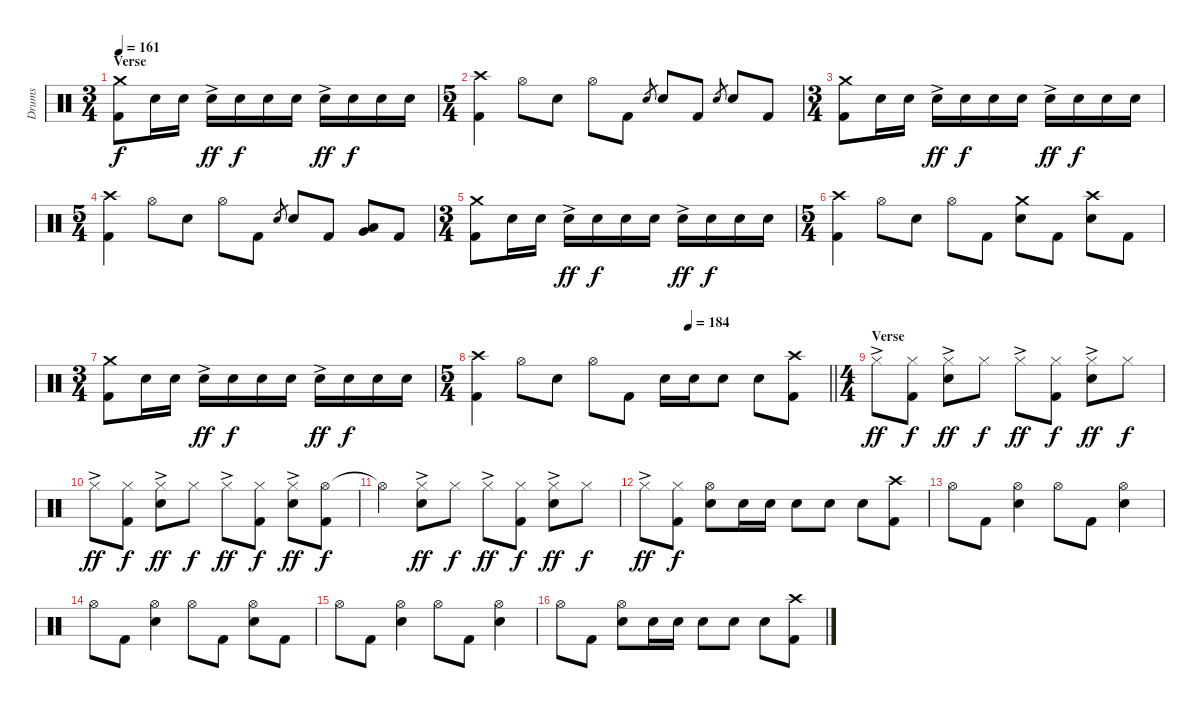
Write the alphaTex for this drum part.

\track ("Drums" "Drums") {instrument percussion}
\staff {score}
\articulation defaults
\ts (3 4)
\section ("" "Verse")
\tempo 161
\clef neutral
\ks c
("Crash medium (hit)" "Kick (hit) 2").8{dy f} "Electric Snare (hit)".16 "Electric Snare (hit)".16 "Electric Snare (hit)"{ac}.16{dy ff} "Electric Snare (hit)".16{dy f} "Electric Snare (hit)".16 "Electric Snare (hit)".16 "Electric Snare (hit)"{ac}.16{dy ff} "Electric Snare (hit)".16{dy f} "Electric Snare (hit)".16 "Electric Snare (hit)".16 |
\ts (5 4)
("Crash high (hit)" "Kick (hit) 2").4 "Hi-Hat (open)".8 "Electric Snare (hit)".8 "Hi-Hat (open)".8 "Kick (hit) 2".8 "Electric Snare (hit)".8{gr} "Electric Snare (hit)".8 "Kick (hit) 2".8 "Electric Snare (hit)".8{gr} "Electric Snare (hit)".8 "Kick (hit) 2".8 |
\ts (3 4)
("Crash medium (hit)" "Kick (hit) 2").8 "Electric Snare (hit)".16 "Electric Snare (hit)".16 "Electric Snare (hit)"{ac}.16{dy ff} "Electric Snare (hit)".16{dy f} "Electric Snare (hit)".16 "Electric Snare (hit)".16 "Electric Snare (hit)"{ac}.16{dy ff} "Electric Snare (hit)".16{dy f} "Electric Snare (hit)".16 "Electric Snare (hit)".16 |
\ts (5 4)
("Crash high (hit)" "Kick (hit) 2").4 "Hi-Hat (open)".8 "Electric Snare (hit)".8 "Hi-Hat (open)".8 "Kick (hit) 2".8 "Electric Snare (hit)".8{gr} "Electric Snare (hit)".8 "Kick (hit) 2".8 ("Very Low Tom (hit)" "Low Floor Tom (hit)").8 "Kick (hit) 2".8 |
\ts (3 4)
("Crash medium (hit)" "Kick (hit) 2").8 "Electric Snare (hit)".16 "Electric Snare (hit)".16 "Electric Snare (hit)"{ac}.16{dy ff} "Electric Snare (hit)".16{dy f} "Electric Snare (hit)".16 "Electric Snare (hit)".16 "Electric Snare (hit)"{ac}.16{dy ff} "Electric Snare (hit)".16{dy f} "Electric Snare (hit)".16 "Electric Snare (hit)".16 |
\ts (5 4)
("Crash high (hit)" "Kick (hit) 2").4 "Hi-Hat (open)".8 "Electric Snare (hit)".8 "Hi-Hat (open)".8 "Kick (hit) 2".8 ("Crash medium (hit)" "Electric Snare (hit)").8 "Kick (hit) 2".8 ("Crash high (hit)" "Electric Snare (hit)").8 "Kick (hit) 2".8 |
\ts (3 4)
("Crash medium (hit)" "Kick (hit) 2").8 "Electric Snare (hit)".16 "Electric Snare (hit)".16 "Electric Snare (hit)"{ac}.16{dy ff} "Electric Snare (hit)".16{dy f} "Electric Snare (hit)".16 "Electric Snare (hit)".16 "Electric Snare (hit)"{ac}.16{dy ff} "Electric Snare (hit)".16{dy f} "Electric Snare (hit)".16 "Electric Snare (hit)".16 |
\ts (5 4)
\tempo (184 0.6)
\barLineRight lightlight
("Crash high (hit)" "Kick (hit) 2").4 "Hi-Hat (open)".8 "Electric Snare (hit)".8 "Hi-Hat (open)".8 "Kick (hit) 2".8 "Electric Snare (hit)".16 "Electric Snare (hit)".16 "Electric Snare (hit)".8 "Electric Snare (hit)".8 ("Crash high (hit)" "Kick (hit) 2").8 |
\ts (4 4)
\section ("" "Verse")
"Hi-Hat (closed)"{ac}.8{dy ff} ("Hi-Hat (closed)" "Kick (hit) 2").8{dy f} ("Hi-Hat (closed)"{ac} "Electric Snare (hit)").8{dy ff} "Hi-Hat (closed)".8{dy f} "Hi-Hat (closed)"{ac}.8{dy ff} ("Hi-Hat (closed)" "Kick (hit) 2").8{dy f} ("Hi-Hat (closed)"{ac} "Electric Snare (hit)").8{dy ff} "Hi-Hat (closed)".8{dy f} |
"Hi-Hat (closed)"{ac}.8{dy ff} ("Hi-Hat (closed)" "Kick (hit) 2").8{dy f} ("Hi-Hat (closed)"{ac} "Electric Snare (hit)").8{dy ff} "Hi-Hat (closed)".8{dy f} "Hi-Hat (closed)"{ac}.8{dy ff} ("Hi-Hat (closed)" "Kick (hit) 2").8{dy f} ("Hi-Hat (closed)"{ac} "Electric Snare (hit)").8{dy ff} ("Hi-Hat (open)" "Kick (hit) 2").8{dy f} |
"Hi-Hat (open)"{t}.4 ("Hi-Hat (closed)"{ac} "Electric Snare (hit)").8{dy ff} "Hi-Hat (closed)".8{dy f} "Hi-Hat (closed)"{ac}.8{dy ff} ("Hi-Hat (closed)" "Kick (hit) 2").8{dy f} ("Hi-Hat (closed)"{ac} "Electric Snare (hit)").8{dy ff} "Hi-Hat (closed)".8{dy f} |
"Hi-Hat (closed)"{ac}.8{dy ff} ("Hi-Hat (closed)" "Kick (hit) 2").8{dy f} ("Hi-Hat (open)" "Electric Snare (hit)").8 "Electric Snare (hit)".16 "Electric Snare (hit)".16 "Electric Snare (hit)".8 "Electric Snare (hit)".8 "Electric Snare (hit)".8 ("Crash high (hit)" "Kick (hit) 2").8 |
"Hi-Hat (open)".8 "Kick (hit) 2".8 ("Hi-Hat (open)" "Electric Snare (hit)").4 "Hi-Hat (open)".8 "Kick (hit) 2".8 ("Hi-Hat (open)" "Electric Snare (hit)").4 |
"Hi-Hat (open)".8 "Kick (hit) 2".8 ("Hi-Hat (open)" "Electric Snare (hit)").4 "Hi-Hat (open)".8 "Kick (hit) 2".8 ("Hi-Hat (open)" "Electric Snare (hit)").8 "Kick (hit) 2".8 |
"Hi-Hat (open)".8 "Kick (hit) 2".8 ("Hi-Hat (open)" "Electric Snare (hit)").4 "Hi-Hat (open)".8 "Kick (hit) 2".8 ("Hi-Hat (open)" "Electric Snare (hit)").4 |
"Hi-Hat (open)".8 "Kick (hit) 2".8 ("Hi-Hat (open)" "Electric Snare (hit)").8 "Electric Snare (hit)".16 "Electric Snare (hit)".16 "Electric Snare (hit)".8 "Electric Snare (hit)".8 "Electric Snare (hit)".8 ("Crash high (hit)" "Kick (hit) 2").8
